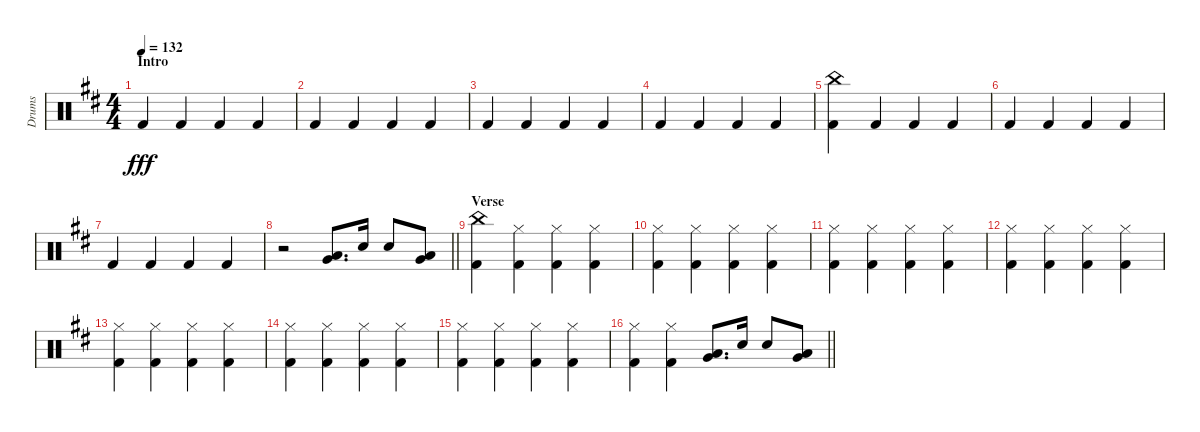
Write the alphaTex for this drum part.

\track ("Drums" "Drums") {instrument percussion}
\staff {score}
\articulation defaults
\ts (4 4)
\section ("" "Intro")
\tempo 132
\clef neutral
\ks d "Kick (hit) 2".4{dy fff} "Kick (hit) 2".4 "Kick (hit) 2".4 "Kick (hit) 2".4
|
"Kick (hit) 2".4 "Kick (hit) 2".4 "Kick (hit) 2".4 "Kick (hit) 2".4 |
"Kick (hit) 2".4 "Kick (hit) 2".4 "Kick (hit) 2".4 "Kick (hit) 2".4 |
"Kick (hit) 2".4 "Kick (hit) 2".4 "Kick (hit) 2".4 "Kick (hit) 2".4 |
("China (hit)" "Kick (hit) 2").4 "Kick (hit) 2".4 "Kick (hit) 2".4 "Kick (hit) 2".4 |
"Kick (hit) 2".4 "Kick (hit) 2".4 "Kick (hit) 2".4 "Kick (hit) 2".4 |
"Kick (hit) 2".4 "Kick (hit) 2".4 "Kick (hit) 2".4 "Kick (hit) 2".4 |
\barLineRight lightlight
r.2 ("Very Low Tom (hit)" "Low Floor Tom (hit)").8{d} "Electric Snare (hit)".16 "Electric Snare (hit)".8 ("Very Low Tom (hit)" "Low Floor Tom (hit)").8 |
\section ("" "Verse")
("China (hit)" "Kick (hit) 2").4 ("Hi-Hat (closed)" "Kick (hit) 2").4 ("Hi-Hat (closed)" "Kick (hit) 2").4 ("Hi-Hat (closed)" "Kick (hit) 2").4 |
("Hi-Hat (closed)" "Kick (hit) 2").4 ("Hi-Hat (closed)" "Kick (hit) 2").4 ("Hi-Hat (closed)" "Kick (hit) 2").4 ("Hi-Hat (closed)" "Kick (hit) 2").4 |
("Hi-Hat (closed)" "Kick (hit) 2").4 ("Hi-Hat (closed)" "Kick (hit) 2").4 ("Hi-Hat (closed)" "Kick (hit) 2").4 ("Hi-Hat (closed)" "Kick (hit) 2").4 |
("Hi-Hat (closed)" "Kick (hit) 2").4 ("Hi-Hat (closed)" "Kick (hit) 2").4 ("Hi-Hat (closed)" "Kick (hit) 2").4 ("Hi-Hat (closed)" "Kick (hit) 2").4 |
("Hi-Hat (closed)" "Kick (hit) 2").4 ("Hi-Hat (closed)" "Kick (hit) 2").4 ("Hi-Hat (closed)" "Kick (hit) 2").4 ("Hi-Hat (closed)" "Kick (hit) 2").4 |
("Hi-Hat (closed)" "Kick (hit) 2").4 ("Hi-Hat (closed)" "Kick (hit) 2").4 ("Hi-Hat (closed)" "Kick (hit) 2").4 ("Hi-Hat (closed)" "Kick (hit) 2").4 |
("Hi-Hat (closed)" "Kick (hit) 2").4 ("Hi-Hat (closed)" "Kick (hit) 2").4 ("Hi-Hat (closed)" "Kick (hit) 2").4 ("Hi-Hat (closed)" "Kick (hit) 2").4 |
\barLineRight lightlight
("Hi-Hat (closed)" "Kick (hit) 2").4 ("Hi-Hat (closed)" "Kick (hit) 2").4 ("Very Low Tom (hit)" "Low Floor Tom (hit)").8{d} "Electric Snare (hit)".16 "Electric Snare (hit)".8 ("Very Low Tom (hit)" "Low Floor Tom (hit)").8
